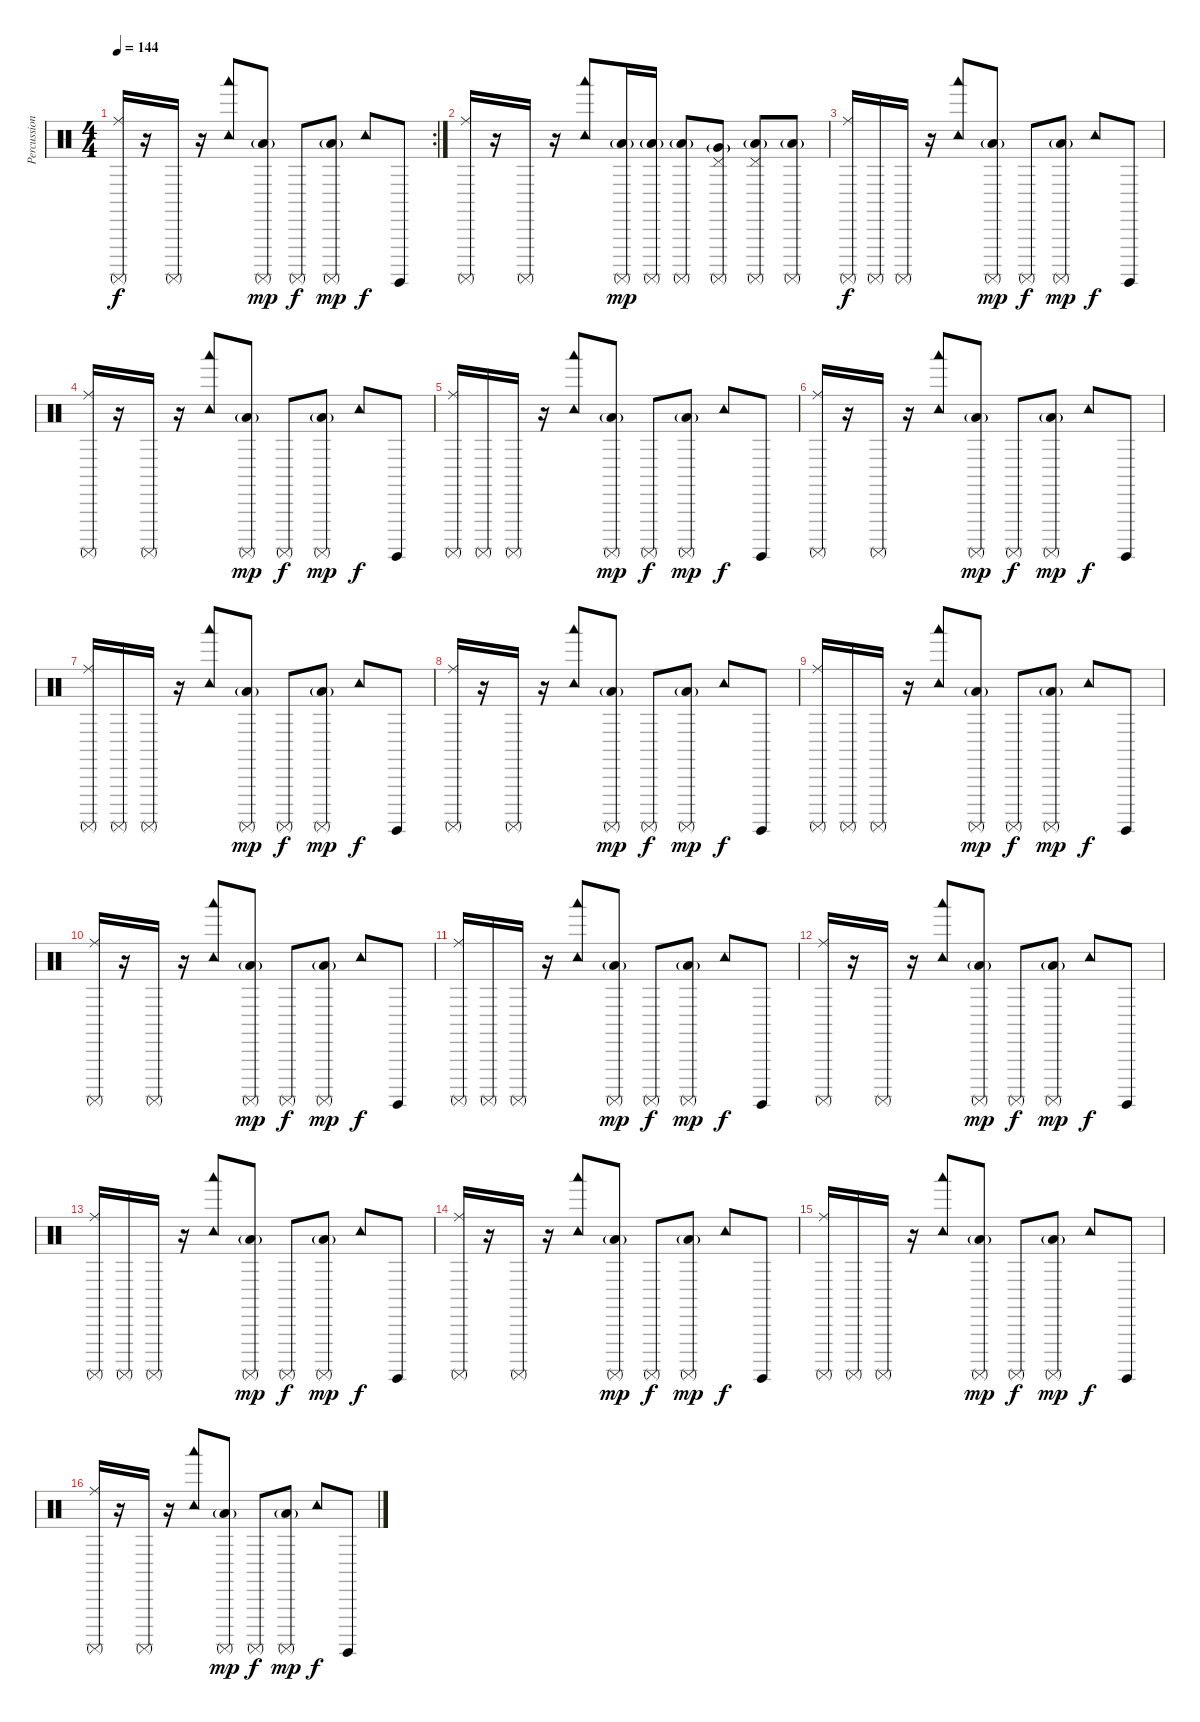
\track ("Percussion" "Percussion") {instrument percussion}
\staff {score}
\articulation defaults
\rc 2
\ts (4 4)
\tempo 144
\clef neutral
\ks c
("Ride (middle)" "Surdo (mute)").16{dy f} r.16 "Surdo (mute)".16 r.16 ("Tambourine (hit)" "Woodblock low (hit)").8 ("Low Floor Tom (hit)"{g} "Surdo (mute)").8{dy mp} "Surdo (mute)".8{dy f} ("Low Floor Tom (hit)"{g} "Surdo (mute)").8{dy mp} "Tambourine (hit)".8{dy f} "Surdo (hit)".8 |
("Ride (middle)" "Surdo (mute)").16 r.16 "Surdo (mute)".16 r.16 ("Tambourine (hit)" "Woodblock low (hit)").8 ("Low Tom (hit)"{g} "Surdo (mute)").16{dy mp} ("Low Tom (hit)"{g} "Surdo (mute)").16 ("Low Tom (hit)"{g} "Surdo (mute)").8 ("Pedal Hi-Hat (hit)" "Very Low Tom (hit)"{g} "Surdo (mute)").8 ("Pedal Hi-Hat (hit)" "Low Floor Tom (hit)"{g} "Surdo (mute)").8 ("Low Floor Tom (hit)"{g} "Surdo (mute)").8 |
("Ride (middle)" "Surdo (mute)").16{dy f} "Surdo (mute)".16 "Surdo (mute)".16 r.16 ("Tambourine (hit)" "Woodblock low (hit)").8 ("Low Floor Tom (hit)"{g} "Surdo (mute)").8{dy mp} "Surdo (mute)".8{dy f} ("Low Floor Tom (hit)"{g} "Surdo (mute)").8{dy mp} "Tambourine (hit)".8{dy f} "Surdo (hit)".8 |
("Ride (middle)" "Surdo (mute)").16 r.16 "Surdo (mute)".16 r.16 ("Tambourine (hit)" "Woodblock low (hit)").8 ("Low Floor Tom (hit)"{g} "Surdo (mute)").8{dy mp} "Surdo (mute)".8{dy f} ("Low Floor Tom (hit)"{g} "Surdo (mute)").8{dy mp} "Tambourine (hit)".8{dy f} "Surdo (hit)".8 |
("Ride (middle)" "Surdo (mute)").16 "Surdo (mute)".16 "Surdo (mute)".16 r.16 ("Tambourine (hit)" "Woodblock low (hit)").8 ("Low Floor Tom (hit)"{g} "Surdo (mute)").8{dy mp} "Surdo (mute)".8{dy f} ("Low Floor Tom (hit)"{g} "Surdo (mute)").8{dy mp} "Tambourine (hit)".8{dy f} "Surdo (hit)".8 |
("Ride (middle)" "Surdo (mute)").16 r.16 "Surdo (mute)".16 r.16 ("Tambourine (hit)" "Woodblock low (hit)").8 ("Low Floor Tom (hit)"{g} "Surdo (mute)").8{dy mp} "Surdo (mute)".8{dy f} ("Low Floor Tom (hit)"{g} "Surdo (mute)").8{dy mp} "Tambourine (hit)".8{dy f} "Surdo (hit)".8 |
("Ride (middle)" "Surdo (mute)").16 "Surdo (mute)".16 "Surdo (mute)".16 r.16 ("Tambourine (hit)" "Woodblock low (hit)").8 ("Low Floor Tom (hit)"{g} "Surdo (mute)").8{dy mp} "Surdo (mute)".8{dy f} ("Low Floor Tom (hit)"{g} "Surdo (mute)").8{dy mp} "Tambourine (hit)".8{dy f} "Surdo (hit)".8 |
("Ride (middle)" "Surdo (mute)").16 r.16 "Surdo (mute)".16 r.16 ("Tambourine (hit)" "Woodblock low (hit)").8 ("Low Floor Tom (hit)"{g} "Surdo (mute)").8{dy mp} "Surdo (mute)".8{dy f} ("Low Floor Tom (hit)"{g} "Surdo (mute)").8{dy mp} "Tambourine (hit)".8{dy f} "Surdo (hit)".8 |
("Ride (middle)" "Surdo (mute)").16 "Surdo (mute)".16 "Surdo (mute)".16 r.16 ("Tambourine (hit)" "Woodblock low (hit)").8 ("Low Floor Tom (hit)"{g} "Surdo (mute)").8{dy mp} "Surdo (mute)".8{dy f} ("Low Floor Tom (hit)"{g} "Surdo (mute)").8{dy mp} "Tambourine (hit)".8{dy f} "Surdo (hit)".8 |
("Ride (middle)" "Surdo (mute)").16 r.16 "Surdo (mute)".16 r.16 ("Tambourine (hit)" "Woodblock low (hit)").8 ("Low Floor Tom (hit)"{g} "Surdo (mute)").8{dy mp} "Surdo (mute)".8{dy f} ("Low Floor Tom (hit)"{g} "Surdo (mute)").8{dy mp} "Tambourine (hit)".8{dy f} "Surdo (hit)".8 |
("Ride (middle)" "Surdo (mute)").16 "Surdo (mute)".16 "Surdo (mute)".16 r.16 ("Tambourine (hit)" "Woodblock low (hit)").8 ("Low Floor Tom (hit)"{g} "Surdo (mute)").8{dy mp} "Surdo (mute)".8{dy f} ("Low Floor Tom (hit)"{g} "Surdo (mute)").8{dy mp} "Tambourine (hit)".8{dy f} "Surdo (hit)".8 |
("Ride (middle)" "Surdo (mute)").16 r.16 "Surdo (mute)".16 r.16 ("Tambourine (hit)" "Woodblock low (hit)").8 ("Low Floor Tom (hit)"{g} "Surdo (mute)").8{dy mp} "Surdo (mute)".8{dy f} ("Low Floor Tom (hit)"{g} "Surdo (mute)").8{dy mp} "Tambourine (hit)".8{dy f} "Surdo (hit)".8 |
("Ride (middle)" "Surdo (mute)").16 "Surdo (mute)".16 "Surdo (mute)".16 r.16 ("Tambourine (hit)" "Woodblock low (hit)").8 ("Low Floor Tom (hit)"{g} "Surdo (mute)").8{dy mp} "Surdo (mute)".8{dy f} ("Low Floor Tom (hit)"{g} "Surdo (mute)").8{dy mp} "Tambourine (hit)".8{dy f} "Surdo (hit)".8 |
("Ride (middle)" "Surdo (mute)").16 r.16 "Surdo (mute)".16 r.16 ("Tambourine (hit)" "Woodblock low (hit)").8 ("Low Floor Tom (hit)"{g} "Surdo (mute)").8{dy mp} "Surdo (mute)".8{dy f} ("Low Floor Tom (hit)"{g} "Surdo (mute)").8{dy mp} "Tambourine (hit)".8{dy f} "Surdo (hit)".8 |
("Ride (middle)" "Surdo (mute)").16 "Surdo (mute)".16 "Surdo (mute)".16 r.16 ("Tambourine (hit)" "Woodblock low (hit)").8 ("Low Floor Tom (hit)"{g} "Surdo (mute)").8{dy mp} "Surdo (mute)".8{dy f} ("Low Floor Tom (hit)"{g} "Surdo (mute)").8{dy mp} "Tambourine (hit)".8{dy f} "Surdo (hit)".8 |
("Ride (middle)" "Surdo (mute)").16 r.16 "Surdo (mute)".16 r.16 ("Tambourine (hit)" "Woodblock low (hit)").8 ("Low Floor Tom (hit)"{g} "Surdo (mute)").8{dy mp} "Surdo (mute)".8{dy f} ("Low Floor Tom (hit)"{g} "Surdo (mute)").8{dy mp} "Tambourine (hit)".8{dy f} "Surdo (hit)".8
